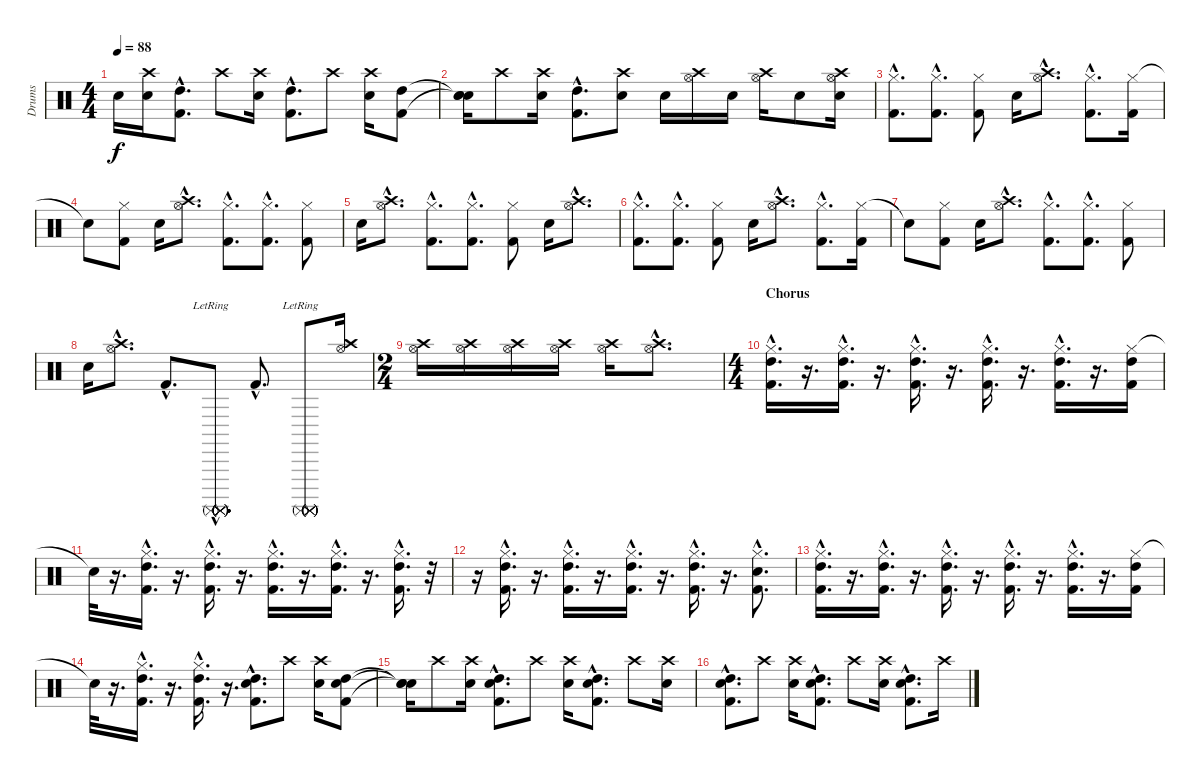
\track ("Drums" "Drums") {instrument percussion}
\staff {score}
\articulation defaults
\ts (4 4)
\tempo 88
\clef neutral
\ks c "Snare (hit)"{t}.16{dy f}
("Crash high (hit)" "Electric Snare (hit)").16 ("High Tom (hit)"{hac} "Kick (hit) 2"{hac}).8{d} "Crash high (hit)".8 ("Crash high (hit)" "Electric Snare (hit)").16 ("High Tom (hit)"{hac} "Kick (hit) 2"{hac}).8{d} "Crash high (hit)".8 ("Crash high (hit)" "Electric Snare (hit)").16 ("High Tom (hit)" "Kick (hit) 2").8 |
("Snare (hit)"{t} "Snare (hit)"{t} "Snare (hit)").16 "Crash high (hit)".8 ("Crash high (hit)" "Electric Snare (hit)").16 ("High Tom (hit)"{hac} "Kick (hit) 2"{hac}).8{d} ("Crash high (hit)" "Electric Snare (hit)").8 "Electric Snare (hit)".16 ("Crash high (hit)" "Hi-Hat (open)").16 "Electric Snare (hit)".16 ("Crash high (hit)" "Hi-Hat (open)").16 "Electric Snare (hit)".8 ("Hi-Hat (open)" "Crash high (hit)" "Electric Snare (hit)").16 |
("Hi-Hat (closed)"{hac} "Kick (hit) 2"{hac}).8{d} ("Hi-Hat (closed)"{hac} "Kick (hit) 2"{hac}).8{d} ("Hi-Hat (closed)" "Kick (hit) 2").8 "Electric Snare (hit)".16 ("Hi-Hat (open)"{hac} "Crash high (hit)"{hac}).8{d} ("Hi-Hat (closed)"{hac} "Kick (hit) 2"{hac}).8{d} ("Hi-Hat (closed)" "Kick (hit) 2").16 |
"Snare (hit)"{t}.8 ("Hi-Hat (closed)" "Kick (hit) 2").8 "Electric Snare (hit)".16 ("Hi-Hat (open)"{hac} "Crash high (hit)"{hac}).8{d} ("Hi-Hat (closed)"{hac} "Kick (hit) 2"{hac}).8{d} ("Hi-Hat (closed)"{hac} "Kick (hit) 2"{hac}).8{d} ("Hi-Hat (closed)" "Kick (hit) 2").8 |
"Electric Snare (hit)".16 ("Hi-Hat (open)"{hac} "Crash high (hit)"{hac}).8{d} ("Hi-Hat (closed)"{hac} "Kick (hit) 2"{hac}).8{d} ("Hi-Hat (closed)"{hac} "Kick (hit) 2"{hac}).8{d} ("Hi-Hat (closed)" "Kick (hit) 2").8 "Electric Snare (hit)".16 ("Hi-Hat (open)"{hac} "Crash high (hit)"{hac}).8{d} |
("Hi-Hat (closed)"{hac} "Kick (hit) 2"{hac}).8{d} ("Hi-Hat (closed)"{hac} "Kick (hit) 2"{hac}).8{d} ("Hi-Hat (closed)" "Kick (hit) 2").8 "Electric Snare (hit)".16 ("Hi-Hat (open)"{hac} "Crash high (hit)"{hac}).8{d} ("Hi-Hat (closed)"{hac} "Kick (hit) 2"{hac}).8{d} ("Hi-Hat (closed)" "Kick (hit) 2").16 |
"Snare (hit)"{t}.8 ("Hi-Hat (closed)" "Kick (hit) 2").8 "Electric Snare (hit)".16 ("Hi-Hat (open)"{hac} "Crash high (hit)"{hac}).8{d} ("Hi-Hat (closed)"{hac} "Kick (hit) 2"{hac}).8{d} ("Hi-Hat (closed)"{hac} "Kick (hit) 2"{hac}).8{d} ("Hi-Hat (closed)" "Kick (hit) 2").8 |
"Electric Snare (hit)".16 ("Hi-Hat (open)"{hac} "Crash high (hit)"{hac}).8{d} "Kick (hit) 2"{hac}.8{d} ("Surdo (mute)"{hac lr} "Surdo (mute)"{hac} "Surdo (mute)"{hac} "Surdo (mute)"{hac} "Surdo (mute)"{hac} "Surdo (mute)"{hac}).8{d volume 16} "Kick (hit) 2"{hac}.8{d volume 13} ("Surdo (mute)"{lr} "Surdo (mute)"{lr} "Surdo (mute)"{lr} "Surdo (mute)"{lr} "Surdo (mute)"{lr} "Surdo (mute)"{lr}).8 ("Hi-Hat (open)" "Crash high (hit)").16 |
\ts (2 4)
("Hi-Hat (open)" "Crash high (hit)").16 ("Hi-Hat (open)" "Crash high (hit)").16 ("Hi-Hat (open)" "Crash high (hit)").16 ("Hi-Hat (open)" "Crash high (hit)").16 ("Hi-Hat (open)" "Crash high (hit)").16 ("Hi-Hat (open)"{hac} "Crash high (hit)"{hac}).8{d} |
\ts (4 4)
\section ("" "Chorus")
("Hi-Hat (closed)"{hac} "High Tom (hit)"{hac} "Kick (hit) 2"{hac}).16{d} r.16{d} ("Hi-Hat (closed)"{hac} "High Tom (hit)"{hac} "Kick (hit) 2"{hac}).16{d} r.16{d} ("Hi-Hat (closed)"{hac} "High Tom (hit)"{hac} "Kick (hit) 2"{hac}).16{d} r.16{d} ("Hi-Hat (closed)"{hac} "High Tom (hit)"{hac} "Kick (hit) 2"{hac}).16{d} r.16{d} ("Hi-Hat (closed)"{hac} "High Tom (hit)"{hac} "Kick (hit) 2"{hac}).16{d} r.16{d} ("Hi-Hat (closed)" "High Tom (hit)" "Kick (hit) 2").16 |
"Snare (hit)"{t}.32 r.16{d} ("Hi-Hat (closed)"{hac} "High Tom (hit)"{hac} "Kick (hit) 2"{hac}).16{d} r.16{d} ("Hi-Hat (closed)"{hac} "High Tom (hit)"{hac} "Kick (hit) 2"{hac}).16{d} r.16{d} ("Hi-Hat (closed)"{hac} "High Tom (hit)"{hac} "Kick (hit) 2"{hac}).16{d} r.16{d} ("Hi-Hat (closed)"{hac} "High Tom (hit)"{hac} "Kick (hit) 2"{hac}).16{d} r.16{d} ("Hi-Hat (closed)"{hac} "High Tom (hit)"{hac} "Kick (hit) 2"{hac}).16{d} r.32 |
r.16 ("Hi-Hat (closed)"{hac} "High Tom (hit)"{hac} "Kick (hit) 2"{hac}).16{d} r.16{d} ("Hi-Hat (closed)"{hac} "High Tom (hit)"{hac} "Kick (hit) 2"{hac}).16{d} r.16{d} ("Hi-Hat (closed)"{hac} "High Tom (hit)"{hac} "Kick (hit) 2"{hac}).16{d} r.16{d} ("Hi-Hat (closed)"{hac} "High Tom (hit)"{hac} "Kick (hit) 2"{hac}).16{d} r.16{d} ("Hi-Hat (closed)"{hac} "Electric Snare (hit)"{hac} "Kick (hit) 2"{hac}).8{d} |
("Hi-Hat (closed)"{hac} "High Tom (hit)"{hac} "Kick (hit) 2"{hac}).16{d} r.16{d} ("Hi-Hat (closed)"{hac} "High Tom (hit)"{hac} "Kick (hit) 2"{hac}).16{d} r.16{d} ("Hi-Hat (closed)"{hac} "High Tom (hit)"{hac} "Kick (hit) 2"{hac}).16{d} r.16{d} ("Hi-Hat (closed)"{hac} "High Tom (hit)"{hac} "Kick (hit) 2"{hac}).16{d} r.16{d} ("Hi-Hat (closed)"{hac} "High Tom (hit)"{hac} "Kick (hit) 2"{hac}).16{d} r.16{d} ("Hi-Hat (closed)" "High Tom (hit)" "Kick (hit) 2").16 |
"Snare (hit)"{t}.32 r.16{d} ("Hi-Hat (closed)"{hac} "High Tom (hit)"{hac} "Kick (hit) 2"{hac}).16{d} r.16{d} ("Hi-Hat (closed)"{hac} "High Tom (hit)"{hac} "Kick (hit) 2"{hac}).16{d} r.16{d} ("High Tom (hit)"{hac} "Electric Snare (hit)"{hac} "Kick (hit) 2"{hac}).8{d} "Crash high (hit)".8 ("Crash high (hit)" "Electric Snare (hit)").16 ("High Tom (hit)" "Electric Snare (hit)" "Kick (hit) 2").8 |
("Snare (hit)"{t} "Snare (hit)"{t} "Snare (hit)"{t}).16 "Crash high (hit)".8 ("Crash high (hit)" "Electric Snare (hit)").16 ("High Tom (hit)"{hac} "Electric Snare (hit)"{hac} "Kick (hit) 2"{hac}).8{d} "Crash high (hit)".8 ("Crash high (hit)" "Electric Snare (hit)").16 ("High Tom (hit)"{hac} "Electric Snare (hit)"{hac} "Kick (hit) 2"{hac}).8{d} "Crash high (hit)".8 ("Crash high (hit)" "Electric Snare (hit)").16 |
("High Tom (hit)"{hac} "Electric Snare (hit)"{hac} "Kick (hit) 2"{hac}).8{d} "Crash high (hit)".8 ("Crash high (hit)" "Electric Snare (hit)").16 ("High Tom (hit)"{hac} "Electric Snare (hit)"{hac} "Kick (hit) 2"{hac}).8{d} "Crash high (hit)".8 ("Crash high (hit)" "Electric Snare (hit)").16 ("High Tom (hit)"{hac} "Electric Snare (hit)"{hac} "Kick (hit) 2"{hac}).8{d} "Crash high (hit)".16
